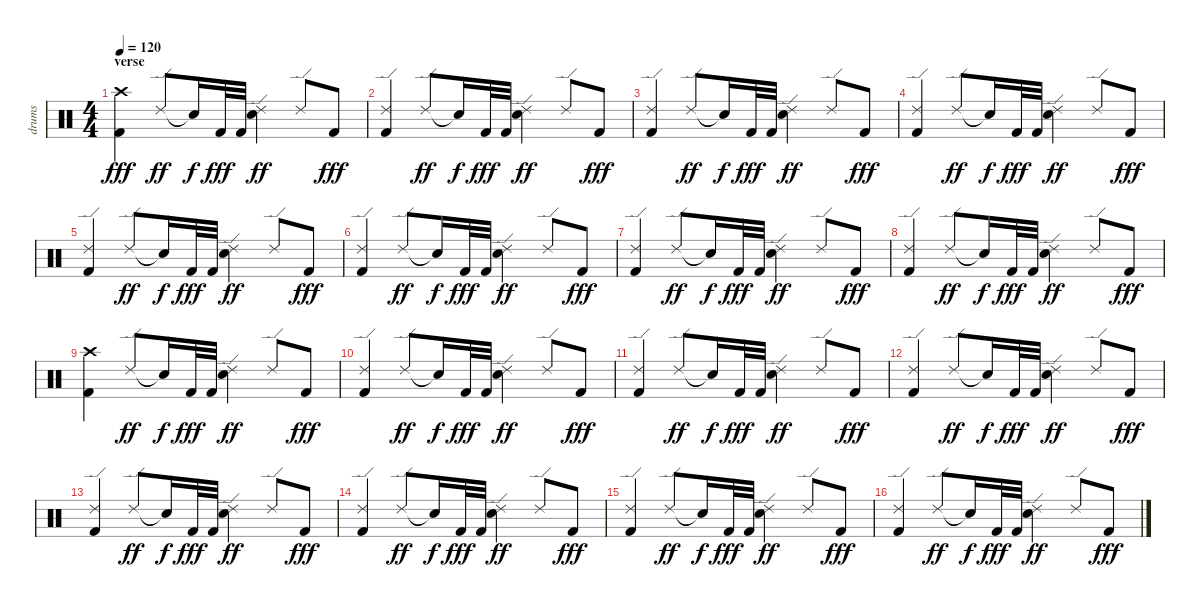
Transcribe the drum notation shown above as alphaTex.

\track ("drums" "drums") {instrument percussion}
\staff {score}
\articulation defaults
\ts (4 4)
\section ("" "verse")
\tempo 120
\clef neutral
\ks c
("Crash high (hit)" "Kick (hit) 2").4{dy fff} "Ride (edge) 2".8{dy ff} "Snare (hit)"{t}.16{dy f} "Kick (hit) 2".32{dy fff} "Kick (hit) 2".32 ("Ride (edge) 2" "Snare (hit) 2").4{dy ff} "Ride (edge) 2".8 "Kick (hit) 2".8{dy fff} |
("Ride (edge) 2" "Kick (hit) 2").4 "Ride (edge) 2".8{dy ff} "Snare (hit)"{t}.16{dy f} "Kick (hit) 2".32{dy fff} "Kick (hit) 2".32 ("Ride (edge) 2" "Snare (hit) 2").4{dy ff} "Ride (edge) 2".8 "Kick (hit) 2".8{dy fff} |
("Ride (edge) 2" "Kick (hit) 2").4 "Ride (edge) 2".8{dy ff} "Snare (hit)"{t}.16{dy f} "Kick (hit) 2".32{dy fff} "Kick (hit) 2".32 ("Ride (edge) 2" "Snare (hit) 2").4{dy ff} "Ride (edge) 2".8 "Kick (hit) 2".8{dy fff} |
("Ride (edge) 2" "Kick (hit) 2").4 "Ride (edge) 2".8{dy ff} "Snare (hit)"{t}.16{dy f} "Kick (hit) 2".32{dy fff} "Kick (hit) 2".32 ("Ride (edge) 2" "Snare (hit) 2").4{dy ff} "Ride (edge) 2".8 "Kick (hit) 2".8{dy fff} |
("Ride (edge) 2" "Kick (hit) 2").4 "Ride (edge) 2".8{dy ff} "Snare (hit)"{t}.16{dy f} "Kick (hit) 2".32{dy fff} "Kick (hit) 2".32 ("Ride (edge) 2" "Snare (hit) 2").4{dy ff} "Ride (edge) 2".8 "Kick (hit) 2".8{dy fff} |
("Ride (edge) 2" "Kick (hit) 2").4 "Ride (edge) 2".8{dy ff} "Snare (hit)"{t}.16{dy f} "Kick (hit) 2".32{dy fff} "Kick (hit) 2".32 ("Ride (edge) 2" "Snare (hit) 2").4{dy ff} "Ride (edge) 2".8 "Kick (hit) 2".8{dy fff} |
("Ride (edge) 2" "Kick (hit) 2").4 "Ride (edge) 2".8{dy ff} "Snare (hit)"{t}.16{dy f} "Kick (hit) 2".32{dy fff} "Kick (hit) 2".32 ("Ride (edge) 2" "Snare (hit) 2").4{dy ff} "Ride (edge) 2".8 "Kick (hit) 2".8{dy fff} |
("Ride (edge) 2" "Kick (hit) 2").4 "Ride (edge) 2".8{dy ff} "Snare (hit)"{t}.16{dy f} "Kick (hit) 2".32{dy fff} "Kick (hit) 2".32 ("Ride (edge) 2" "Snare (hit) 2").4{dy ff} "Ride (edge) 2".8 "Kick (hit) 2".8{dy fff} |
("Crash high (hit)" "Kick (hit) 2").4 "Ride (edge) 2".8{dy ff} "Snare (hit)"{t}.16{dy f} "Kick (hit) 2".32{dy fff} "Kick (hit) 2".32 ("Ride (edge) 2" "Snare (hit) 2").4{dy ff} "Ride (edge) 2".8 "Kick (hit) 2".8{dy fff} |
("Ride (edge) 2" "Kick (hit) 2").4 "Ride (edge) 2".8{dy ff} "Snare (hit)"{t}.16{dy f} "Kick (hit) 2".32{dy fff} "Kick (hit) 2".32 ("Ride (edge) 2" "Snare (hit) 2").4{dy ff} "Ride (edge) 2".8 "Kick (hit) 2".8{dy fff} |
("Ride (edge) 2" "Kick (hit) 2").4 "Ride (edge) 2".8{dy ff} "Snare (hit)"{t}.16{dy f} "Kick (hit) 2".32{dy fff} "Kick (hit) 2".32 ("Ride (edge) 2" "Snare (hit) 2").4{dy ff} "Ride (edge) 2".8 "Kick (hit) 2".8{dy fff} |
("Ride (edge) 2" "Kick (hit) 2").4 "Ride (edge) 2".8{dy ff} "Snare (hit)"{t}.16{dy f} "Kick (hit) 2".32{dy fff} "Kick (hit) 2".32 ("Ride (edge) 2" "Snare (hit) 2").4{dy ff} "Ride (edge) 2".8 "Kick (hit) 2".8{dy fff} |
("Ride (edge) 2" "Kick (hit) 2").4 "Ride (edge) 2".8{dy ff} "Snare (hit)"{t}.16{dy f} "Kick (hit) 2".32{dy fff} "Kick (hit) 2".32 ("Ride (edge) 2" "Snare (hit) 2").4{dy ff} "Ride (edge) 2".8 "Kick (hit) 2".8{dy fff} |
("Ride (edge) 2" "Kick (hit) 2").4 "Ride (edge) 2".8{dy ff} "Snare (hit)"{t}.16{dy f} "Kick (hit) 2".32{dy fff} "Kick (hit) 2".32 ("Ride (edge) 2" "Snare (hit) 2").4{dy ff} "Ride (edge) 2".8 "Kick (hit) 2".8{dy fff} |
("Ride (edge) 2" "Kick (hit) 2").4 "Ride (edge) 2".8{dy ff} "Snare (hit)"{t}.16{dy f} "Kick (hit) 2".32{dy fff} "Kick (hit) 2".32 ("Ride (edge) 2" "Snare (hit) 2").4{dy ff} "Ride (edge) 2".8 "Kick (hit) 2".8{dy fff} |
("Ride (edge) 2" "Kick (hit) 2").4 "Ride (edge) 2".8{dy ff} "Snare (hit)"{t}.16{dy f} "Kick (hit) 2".32{dy fff} "Kick (hit) 2".32 ("Ride (edge) 2" "Snare (hit) 2").4{dy ff} "Ride (edge) 2".8 "Kick (hit) 2".8{dy fff}
